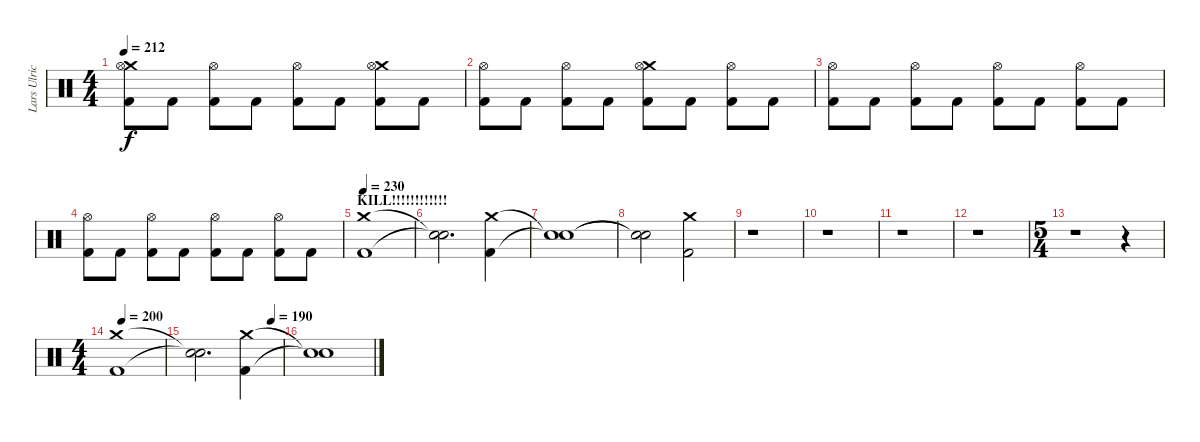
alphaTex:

\track ("Lars Ulrich" "Lars Ulric") {instrument percussion}
\staff {score}
\articulation defaults
\ts (4 4)
\tempo 212
\clef neutral
\ks c
("Crash medium (hit)" "Hi-Hat (open)" "Kick (hit) 2").8{dy f} "Kick (hit) 2".8 ("Hi-Hat (open)" "Kick (hit) 2").8 "Kick (hit) 2".8 ("Hi-Hat (open)" "Kick (hit) 2").8 "Kick (hit) 2".8 ("Crash medium (hit)" "Hi-Hat (open)" "Kick (hit) 2").8 "Kick (hit) 2".8 |
("Hi-Hat (open)" "Kick (hit) 2").8 "Kick (hit) 2".8 ("Hi-Hat (open)" "Kick (hit) 2").8 "Kick (hit) 2".8 ("Crash medium (hit)" "Hi-Hat (open)" "Kick (hit) 2").8 "Kick (hit) 2".8 ("Hi-Hat (open)" "Kick (hit) 2").8 "Kick (hit) 2".8 |
("Hi-Hat (open)" "Kick (hit) 2").8 "Kick (hit) 2".8 ("Hi-Hat (open)" "Kick (hit) 2").8 "Kick (hit) 2".8 ("Hi-Hat (open)" "Kick (hit) 2").8 "Kick (hit) 2".8 ("Hi-Hat (open)" "Kick (hit) 2").8 "Kick (hit) 2".8 |
("Hi-Hat (open)" "Kick (hit) 2").8 "Kick (hit) 2".8 ("Hi-Hat (open)" "Kick (hit) 2").8 "Kick (hit) 2".8 ("Hi-Hat (open)" "Kick (hit) 2").8 "Kick (hit) 2".8 ("Hi-Hat (open)" "Kick (hit) 2").8 "Kick (hit) 2".8 |
\section ("" "KILL!!!!!!!!!!!!")
\tempo 230
("Crash medium (hit)" "Kick (hit) 2").1 |
("Snare (hit)"{t} "Snare (hit)"{t}).2{d} ("Crash medium (hit)" "Kick (hit) 2").4 |
("Snare (hit)"{t} "Snare (hit)"{t}).1 |
("Snare (hit)"{t} "Snare (hit)"{t}).2 ("Crash medium (hit)" "Kick (hit) 2").2 |
r.1 |
r.1 |
r.1 |
r.1 |
\ts (5 4)
r.1 r.4 |
\ts (4 4)
\tempo (200 0.125)
("Crash medium (hit)" "Kick (hit) 2").1 |
\tempo (190 0.875)
("Snare (hit)"{t} "Snare (hit)"{t}).2{d} ("Crash medium (hit)" "Kick (hit) 2").4 |
("Snare (hit)"{t} "Snare (hit)"{t}).1
